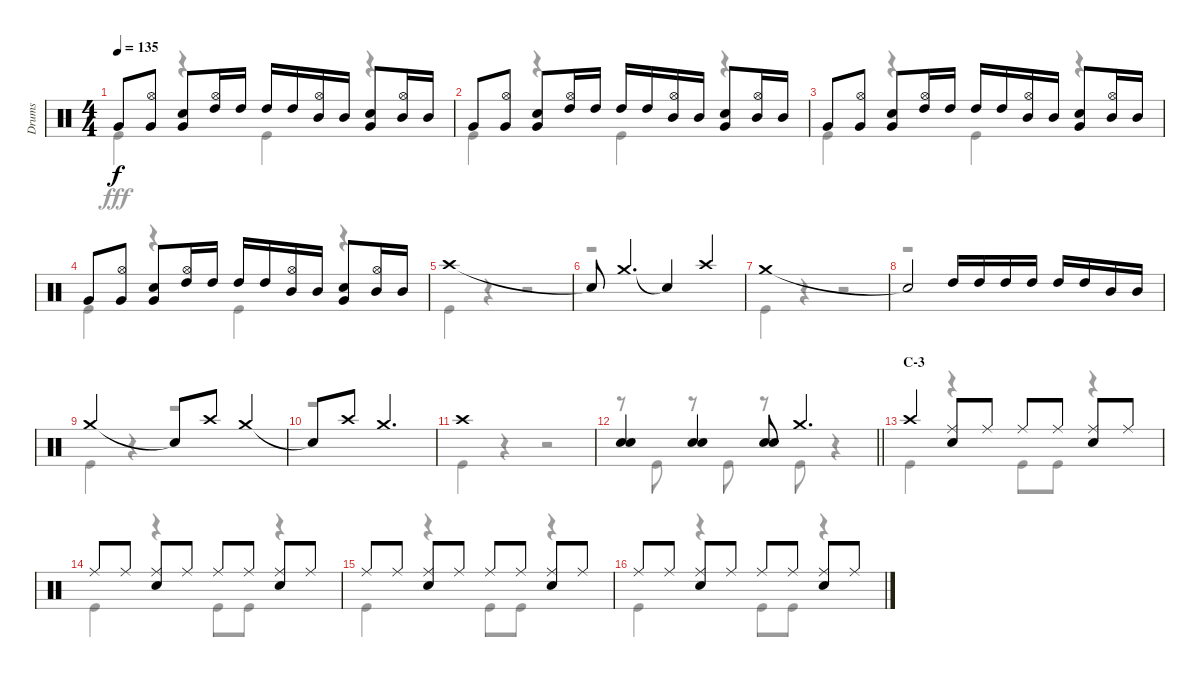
\track ("Drums" "Drums") {instrument percussion}
\staff {score}
\articulation defaults
\voice
\ts (4 4)
\tempo 135
\clef neutral
\ks c "Very Low Tom (hit)".8{dy f}
("Hi-Hat (open)" "Very Low Tom (hit)").8 ("Snare (hit) 2" "Very Low Tom (hit)").8 ("Hi-Hat (open)" "High Tom (hit)").16 "High Tom (hit)".16 "High Tom (hit)".16 "High Tom (hit)".16 ("Hi-Hat (open)" "Mid Tom (hit)").16 "Mid Tom (hit)".16 ("Snare (hit) 2" "Very Low Tom (hit)").8 ("Hi-Hat (open)" "Mid Tom (hit)").16 "Mid Tom (hit)".16 |
"Very Low Tom (hit)".8 ("Hi-Hat (open)" "Very Low Tom (hit)").8 ("Snare (hit) 2" "Very Low Tom (hit)").8 ("Hi-Hat (open)" "High Tom (hit)").16 "High Tom (hit)".16 "High Tom (hit)".16 "High Tom (hit)".16 ("Hi-Hat (open)" "Mid Tom (hit)").16 "Mid Tom (hit)".16 ("Snare (hit) 2" "Very Low Tom (hit)").8 ("Hi-Hat (open)" "Mid Tom (hit)").16 "Mid Tom (hit)".16 |
"Very Low Tom (hit)".8 ("Hi-Hat (open)" "Very Low Tom (hit)").8 ("Snare (hit) 2" "Very Low Tom (hit)").8 ("Hi-Hat (open)" "High Tom (hit)").16 "High Tom (hit)".16 "High Tom (hit)".16 "High Tom (hit)".16 ("Hi-Hat (open)" "Mid Tom (hit)").16 "Mid Tom (hit)".16 ("Snare (hit) 2" "Very Low Tom (hit)").8 ("Hi-Hat (open)" "Mid Tom (hit)").16 "Mid Tom (hit)".16 |
"Very Low Tom (hit)".8 ("Hi-Hat (open)" "Very Low Tom (hit)").8 ("Snare (hit) 2" "Very Low Tom (hit)").8 ("Hi-Hat (open)" "High Tom (hit)").16 "High Tom (hit)".16 "High Tom (hit)".16 "High Tom (hit)".16 ("Hi-Hat (open)" "Mid Tom (hit)").16 "Mid Tom (hit)".16 ("Snare (hit) 2" "Very Low Tom (hit)").8 ("Hi-Hat (open)" "Mid Tom (hit)").16 "Mid Tom (hit)".16 |
"Crash high (hit)".1 |
"Snare (hit)"{t}.8 "Crash medium (hit)".4{d} "Snare (hit)"{t}.4 "Crash high (hit)".4 |
"Crash medium (hit)".1 |
"Snare (hit)"{t}.2 "High Tom (hit)".16 "High Tom (hit)".16 "High Tom (hit)".16 "High Tom (hit)".16 "High Tom (hit)".16 "High Tom (hit)".16 "Mid Tom (hit)".16 "Mid Tom (hit)".16 |
"Crash medium (hit)".2 "Snare (hit)"{t}.8 "Crash high (hit)".8 "Crash medium (hit)".4 |
"Snare (hit)"{t}.8 "Crash high (hit)".8 "Crash medium (hit)".2{d} |
"Crash high (hit)".1 |
\barLineRight lightlight
("Snare (hit) 2" "Snare (hit) 2").4 ("Snare (hit) 2" "Snare (hit) 2").4 ("Snare (hit) 2" "Snare (hit) 2").8 "Crash medium (hit)".4{d} |
\section ("" "C-3")
"Crash high (hit)".4 ("Ride (middle)" "Snare (hit) 2").8 "Ride (middle)".8 "Ride (middle)".8 "Ride (middle)".8 ("Ride (middle)" "Snare (hit) 2").8 "Ride (middle)".8 |
"Ride (middle)".8 "Ride (middle)".8 ("Ride (middle)" "Snare (hit) 2").8 "Ride (middle)".8 "Ride (middle)".8 "Ride (middle)".8 ("Ride (middle)" "Snare (hit) 2").8 "Ride (middle)".8 |
"Ride (middle)".8 "Ride (middle)".8 ("Ride (middle)" "Snare (hit) 2").8 "Ride (middle)".8 "Ride (middle)".8 "Ride (middle)".8 ("Ride (middle)" "Snare (hit) 2").8 "Ride (middle)".8 |
"Ride (middle)".8 "Ride (middle)".8 ("Ride (middle)" "Snare (hit) 2").8 "Ride (middle)".8 "Ride (middle)".8 "Ride (middle)".8 ("Ride (middle)" "Snare (hit) 2").8 "Ride (middle)".8
\voice
\clef neutral
\ottava regular
\simile none
\ks c "Kick (hit)".4{dy fff}
r.4 "Kick (hit)".4 r.4 |
"Kick (hit)".4 r.4 "Kick (hit)".4 r.4 |
"Kick (hit)".4 r.4 "Kick (hit)".4 r.4 |
"Kick (hit)".4 r.4 "Kick (hit)".4 r.4 |
"Kick (hit)".4 r.4 r.2 |
r.1 |
"Kick (hit)".4 r.4 r.2 |
r.1 |
"Kick (hit)".4 r.4 r.2 |
r.1 |
"Kick (hit)".4 r.4 r.2 |
\barLineRight lightlight
r.8 "Kick (hit)".8 r.8 "Kick (hit)".8 r.8 "Kick (hit)".8 r.4 |
"Kick (hit)".4 r.4 "Kick (hit)".8 "Kick (hit)".8 r.4 |
"Kick (hit)".4 r.4 "Kick (hit)".8 "Kick (hit)".8 r.4 |
"Kick (hit)".4 r.4 "Kick (hit)".8 "Kick (hit)".8 r.4 |
"Kick (hit)".4 r.4 "Kick (hit)".8 "Kick (hit)".8 r.4
